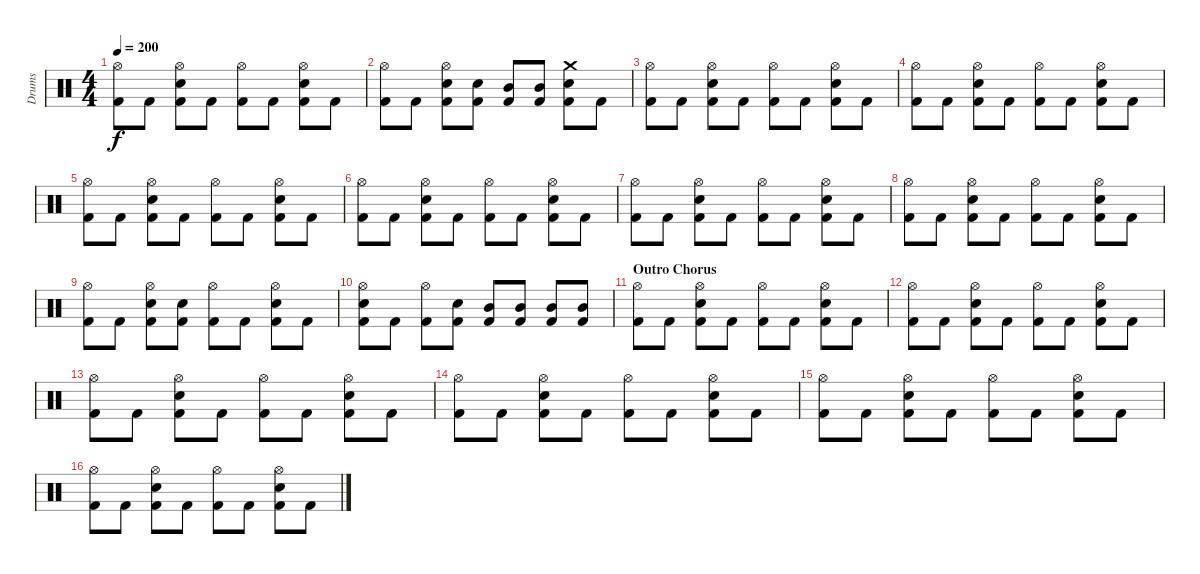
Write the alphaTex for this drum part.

\track ("Drums" "Drums") {instrument percussion}
\staff {score}
\articulation defaults
\ts (4 4)
\tempo 200
\clef neutral
\ks c
("Hi-Hat (open)" "Kick (hit) 2").8{dy f} "Kick (hit) 2".8 ("Hi-Hat (open)" "Snare (hit) 2" "Kick (hit) 2").8 "Kick (hit) 2".8 ("Hi-Hat (open)" "Kick (hit) 2").8 "Kick (hit) 2".8 ("Hi-Hat (open)" "Snare (hit) 2" "Kick (hit) 2").8 "Kick (hit) 2".8 |
("Hi-Hat (open)" "Kick (hit) 2").8 "Kick (hit) 2".8 ("Hi-Hat (open)" "Snare (hit) 2" "Kick (hit) 2").8 ("Snare (hit) 2" "Kick (hit) 2").8 ("Mid Tom (hit)" "Kick (hit) 2").8 ("Mid Tom (hit)" "Kick (hit) 2").8 ("Crash medium (hit)" "Snare (hit) 2" "Kick (hit) 2").8 "Kick (hit) 2".8 |
("Hi-Hat (open)" "Kick (hit) 2").8 "Kick (hit) 2".8 ("Hi-Hat (open)" "Snare (hit) 2" "Kick (hit) 2").8 "Kick (hit) 2".8 ("Hi-Hat (open)" "Kick (hit) 2").8 "Kick (hit) 2".8 ("Hi-Hat (open)" "Snare (hit) 2" "Kick (hit) 2").8 "Kick (hit) 2".8 |
("Hi-Hat (open)" "Kick (hit) 2").8 "Kick (hit) 2".8 ("Hi-Hat (open)" "Snare (hit) 2" "Kick (hit) 2").8 "Kick (hit) 2".8 ("Hi-Hat (open)" "Kick (hit) 2").8 "Kick (hit) 2".8 ("Hi-Hat (open)" "Snare (hit) 2" "Kick (hit) 2").8 "Kick (hit) 2".8 |
("Hi-Hat (open)" "Kick (hit) 2").8 "Kick (hit) 2".8 ("Hi-Hat (open)" "Snare (hit) 2" "Kick (hit) 2").8 "Kick (hit) 2".8 ("Hi-Hat (open)" "Kick (hit) 2").8 "Kick (hit) 2".8 ("Hi-Hat (open)" "Snare (hit) 2" "Kick (hit) 2").8 "Kick (hit) 2".8 |
("Hi-Hat (open)" "Kick (hit) 2").8 "Kick (hit) 2".8 ("Hi-Hat (open)" "Snare (hit) 2" "Kick (hit) 2").8 "Kick (hit) 2".8 ("Hi-Hat (open)" "Kick (hit) 2").8 "Kick (hit) 2".8 ("Hi-Hat (open)" "Snare (hit) 2" "Kick (hit) 2").8 "Kick (hit) 2".8 |
("Hi-Hat (open)" "Kick (hit) 2").8 "Kick (hit) 2".8 ("Hi-Hat (open)" "Snare (hit) 2" "Kick (hit) 2").8 "Kick (hit) 2".8 ("Hi-Hat (open)" "Kick (hit) 2").8 "Kick (hit) 2".8 ("Hi-Hat (open)" "Snare (hit) 2" "Kick (hit) 2").8 "Kick (hit) 2".8 |
("Hi-Hat (open)" "Kick (hit) 2").8 "Kick (hit) 2".8 ("Hi-Hat (open)" "Snare (hit) 2" "Kick (hit) 2").8 "Kick (hit) 2".8 ("Hi-Hat (open)" "Kick (hit) 2").8 "Kick (hit) 2".8 ("Hi-Hat (open)" "Snare (hit) 2" "Kick (hit) 2").8 "Kick (hit) 2".8 |
("Hi-Hat (open)" "Kick (hit) 2").8 "Kick (hit) 2".8 ("Hi-Hat (open)" "Snare (hit) 2" "Kick (hit) 2").8 ("Snare (hit) 2" "Kick (hit) 2").8 ("Hi-Hat (open)" "Kick (hit) 2").8 "Kick (hit) 2".8 ("Hi-Hat (open)" "Snare (hit) 2" "Kick (hit) 2").8 "Kick (hit) 2".8 |
("Hi-Hat (open)" "Snare (hit) 2" "Kick (hit) 2").8 "Kick (hit) 2".8 ("Hi-Hat (open)" "Kick (hit) 2").8 ("Snare (hit) 2" "Kick (hit) 2").8 ("Mid Tom (hit)" "Kick (hit) 2").8 ("Mid Tom (hit)" "Kick (hit) 2").8 ("Mid Tom (hit)" "Kick (hit) 2").8 ("Mid Tom (hit)" "Kick (hit) 2").8 |
\section ("" "Outro Chorus")
("Hi-Hat (open)" "Kick (hit) 2").8 "Kick (hit) 2".8 ("Hi-Hat (open)" "Snare (hit) 2" "Kick (hit) 2").8 "Kick (hit) 2".8 ("Hi-Hat (open)" "Kick (hit) 2").8 "Kick (hit) 2".8 ("Hi-Hat (open)" "Snare (hit) 2" "Kick (hit) 2").8 "Kick (hit) 2".8 |
("Hi-Hat (open)" "Kick (hit) 2").8 "Kick (hit) 2".8 ("Hi-Hat (open)" "Snare (hit) 2" "Kick (hit) 2").8 "Kick (hit) 2".8 ("Hi-Hat (open)" "Kick (hit) 2").8 "Kick (hit) 2".8 ("Hi-Hat (open)" "Snare (hit) 2" "Kick (hit) 2").8 "Kick (hit) 2".8 |
("Hi-Hat (open)" "Kick (hit) 2").8 "Kick (hit) 2".8 ("Hi-Hat (open)" "Snare (hit) 2" "Kick (hit) 2").8 "Kick (hit) 2".8 ("Hi-Hat (open)" "Kick (hit) 2").8 "Kick (hit) 2".8 ("Hi-Hat (open)" "Snare (hit) 2" "Kick (hit) 2").8 "Kick (hit) 2".8 |
("Hi-Hat (open)" "Kick (hit) 2").8 "Kick (hit) 2".8 ("Hi-Hat (open)" "Snare (hit) 2" "Kick (hit) 2").8 "Kick (hit) 2".8 ("Hi-Hat (open)" "Kick (hit) 2").8 "Kick (hit) 2".8 ("Hi-Hat (open)" "Snare (hit) 2" "Kick (hit) 2").8 "Kick (hit) 2".8 |
("Hi-Hat (open)" "Kick (hit) 2").8 "Kick (hit) 2".8 ("Hi-Hat (open)" "Snare (hit) 2" "Kick (hit) 2").8 "Kick (hit) 2".8 ("Hi-Hat (open)" "Kick (hit) 2").8 "Kick (hit) 2".8 ("Hi-Hat (open)" "Snare (hit) 2" "Kick (hit) 2").8 "Kick (hit) 2".8 |
("Hi-Hat (open)" "Kick (hit) 2").8 "Kick (hit) 2".8 ("Hi-Hat (open)" "Snare (hit) 2" "Kick (hit) 2").8 "Kick (hit) 2".8 ("Hi-Hat (open)" "Kick (hit) 2").8 "Kick (hit) 2".8 ("Hi-Hat (open)" "Snare (hit) 2" "Kick (hit) 2").8 "Kick (hit) 2".8
